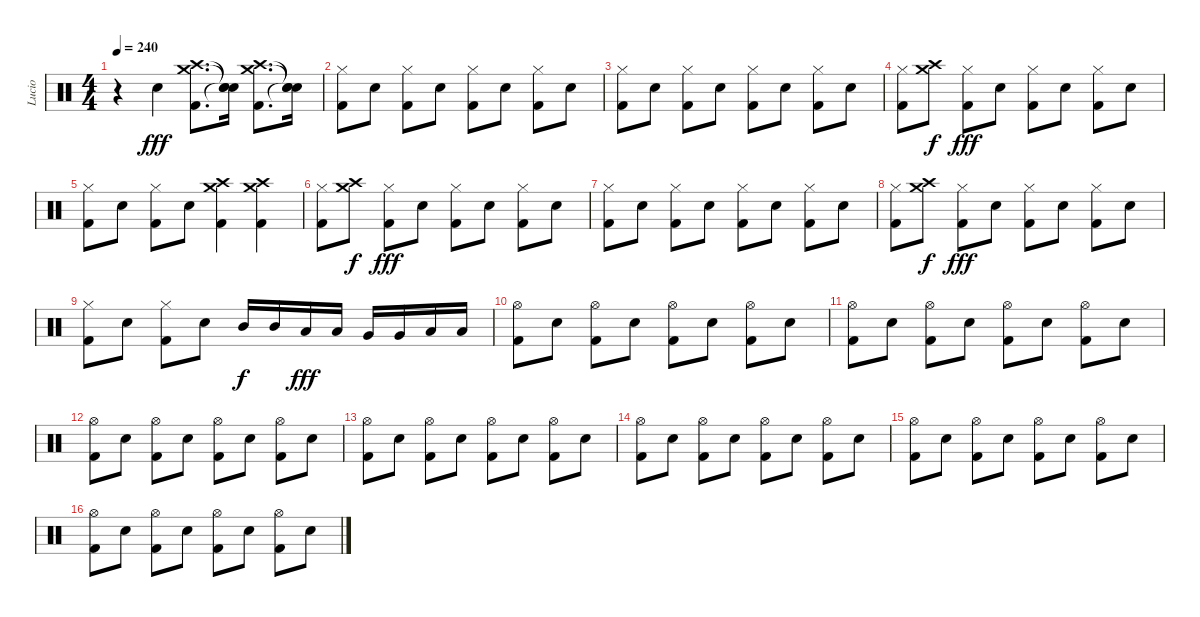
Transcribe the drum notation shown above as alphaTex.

\track ("Lucio" "Lucio") {instrument percussion}
\staff {score}
\articulation defaults
\ts (4 4)
\tempo 240
\clef neutral
\ks c
r.4{dy fff} "Electric Snare (hit)".4{volume 16} ("Crash medium (hit)" "Crash high (hit)" "Kick (hit) 2").8{d} ("Snare (hit)"{t} "Snare (hit)"{t} "Snare (hit)"{t}).16{volume 0} ("Crash medium (hit)" "Crash high (hit)" "Kick (hit) 2").8{d volume 16} ("Snare (hit)"{t} "Snare (hit)"{t} "Snare (hit)"{t}).16{volume 0} |
("Hi-Hat (closed)" "Kick (hit) 2").8{volume 16} "Electric Snare (hit)".8 ("Hi-Hat (closed)" "Kick (hit) 2").8 "Electric Snare (hit)".8 ("Hi-Hat (closed)" "Kick (hit) 2").8 "Electric Snare (hit)".8 ("Hi-Hat (closed)" "Kick (hit) 2").8 "Electric Snare (hit)".8 |
("Hi-Hat (closed)" "Kick (hit) 2").8 "Electric Snare (hit)".8 ("Hi-Hat (closed)" "Kick (hit) 2").8 "Electric Snare (hit)".8 ("Hi-Hat (closed)" "Kick (hit) 2").8 "Electric Snare (hit)".8 ("Hi-Hat (closed)" "Kick (hit) 2").8 "Electric Snare (hit)".8 |
("Hi-Hat (closed)" "Kick (hit) 2").8 ("Crash medium (hit)" "Crash high (hit)").8{dy f} ("Hi-Hat (closed)" "Kick (hit) 2").8{dy fff} "Electric Snare (hit)".8 ("Hi-Hat (closed)" "Kick (hit) 2").8 "Electric Snare (hit)".8 ("Hi-Hat (closed)" "Kick (hit) 2").8 "Electric Snare (hit)".8 |
("Hi-Hat (closed)" "Kick (hit) 2").8 "Electric Snare (hit)".8 ("Hi-Hat (closed)" "Kick (hit) 2").8 "Electric Snare (hit)".8 ("Crash medium (hit)" "Crash high (hit)" "Kick (hit) 2").4 ("Crash medium (hit)" "Crash high (hit)" "Kick (hit) 2").4 |
("Hi-Hat (closed)" "Kick (hit) 2").8 ("Crash medium (hit)" "Crash high (hit)").8{dy f} ("Hi-Hat (closed)" "Kick (hit) 2").8{dy fff} "Electric Snare (hit)".8 ("Hi-Hat (closed)" "Kick (hit) 2").8 "Electric Snare (hit)".8 ("Hi-Hat (closed)" "Kick (hit) 2").8 "Electric Snare (hit)".8 |
("Hi-Hat (closed)" "Kick (hit) 2").8 "Electric Snare (hit)".8 ("Hi-Hat (closed)" "Kick (hit) 2").8 "Electric Snare (hit)".8 ("Hi-Hat (closed)" "Kick (hit) 2").8 "Electric Snare (hit)".8 ("Hi-Hat (closed)" "Kick (hit) 2").8 "Electric Snare (hit)".8 |
("Hi-Hat (closed)" "Kick (hit) 2").8 ("Crash medium (hit)" "Crash high (hit)").8{dy f} ("Hi-Hat (closed)" "Kick (hit) 2").8{dy fff} "Electric Snare (hit)".8 ("Hi-Hat (closed)" "Kick (hit) 2").8 "Electric Snare (hit)".8 ("Hi-Hat (closed)" "Kick (hit) 2").8 "Electric Snare (hit)".8 |
("Hi-Hat (closed)" "Kick (hit) 2").8 "Electric Snare (hit)".8 ("Hi-Hat (closed)" "Kick (hit) 2").8 "Electric Snare (hit)".8 "Mid Tom (hit)".16{dy f} "Mid Tom (hit)".16 "Low Tom (hit)".16{dy fff} "Low Tom (hit)".16 "Very Low Tom (hit)".16 "Very Low Tom (hit)".16 "Low Floor Tom (hit)".16 "Low Floor Tom (hit)".16 |
("Hi-Hat (open)" "Kick (hit) 2").8 "Electric Snare (hit)".8 ("Hi-Hat (open)" "Kick (hit) 2").8 "Electric Snare (hit)".8 ("Hi-Hat (open)" "Kick (hit) 2").8 "Electric Snare (hit)".8 ("Hi-Hat (open)" "Kick (hit) 2").8 "Electric Snare (hit)".8 |
("Hi-Hat (open)" "Kick (hit) 2").8 "Electric Snare (hit)".8 ("Hi-Hat (open)" "Kick (hit) 2").8 "Electric Snare (hit)".8 ("Hi-Hat (open)" "Kick (hit) 2").8 "Electric Snare (hit)".8 ("Hi-Hat (open)" "Kick (hit) 2").8 "Electric Snare (hit)".8 |
("Hi-Hat (open)" "Kick (hit) 2").8 "Electric Snare (hit)".8 ("Hi-Hat (open)" "Kick (hit) 2").8 "Electric Snare (hit)".8 ("Hi-Hat (open)" "Kick (hit) 2").8 "Electric Snare (hit)".8 ("Hi-Hat (open)" "Kick (hit) 2").8 "Electric Snare (hit)".8 |
("Hi-Hat (open)" "Kick (hit) 2").8 "Electric Snare (hit)".8 ("Hi-Hat (open)" "Kick (hit) 2").8 "Electric Snare (hit)".8 ("Hi-Hat (open)" "Kick (hit) 2").8 "Electric Snare (hit)".8 ("Hi-Hat (open)" "Kick (hit) 2").8 "Electric Snare (hit)".8 |
("Hi-Hat (open)" "Kick (hit) 2").8 "Electric Snare (hit)".8 ("Hi-Hat (open)" "Kick (hit) 2").8 "Electric Snare (hit)".8 ("Hi-Hat (open)" "Kick (hit) 2").8 "Electric Snare (hit)".8 ("Hi-Hat (open)" "Kick (hit) 2").8 "Electric Snare (hit)".8 |
("Hi-Hat (open)" "Kick (hit) 2").8 "Electric Snare (hit)".8 ("Hi-Hat (open)" "Kick (hit) 2").8 "Electric Snare (hit)".8 ("Hi-Hat (open)" "Kick (hit) 2").8 "Electric Snare (hit)".8 ("Hi-Hat (open)" "Kick (hit) 2").8 "Electric Snare (hit)".8 |
("Hi-Hat (open)" "Kick (hit) 2").8 "Electric Snare (hit)".8 ("Hi-Hat (open)" "Kick (hit) 2").8 "Electric Snare (hit)".8 ("Hi-Hat (open)" "Kick (hit) 2").8 "Electric Snare (hit)".8 ("Hi-Hat (open)" "Kick (hit) 2").8 "Electric Snare (hit)".8
